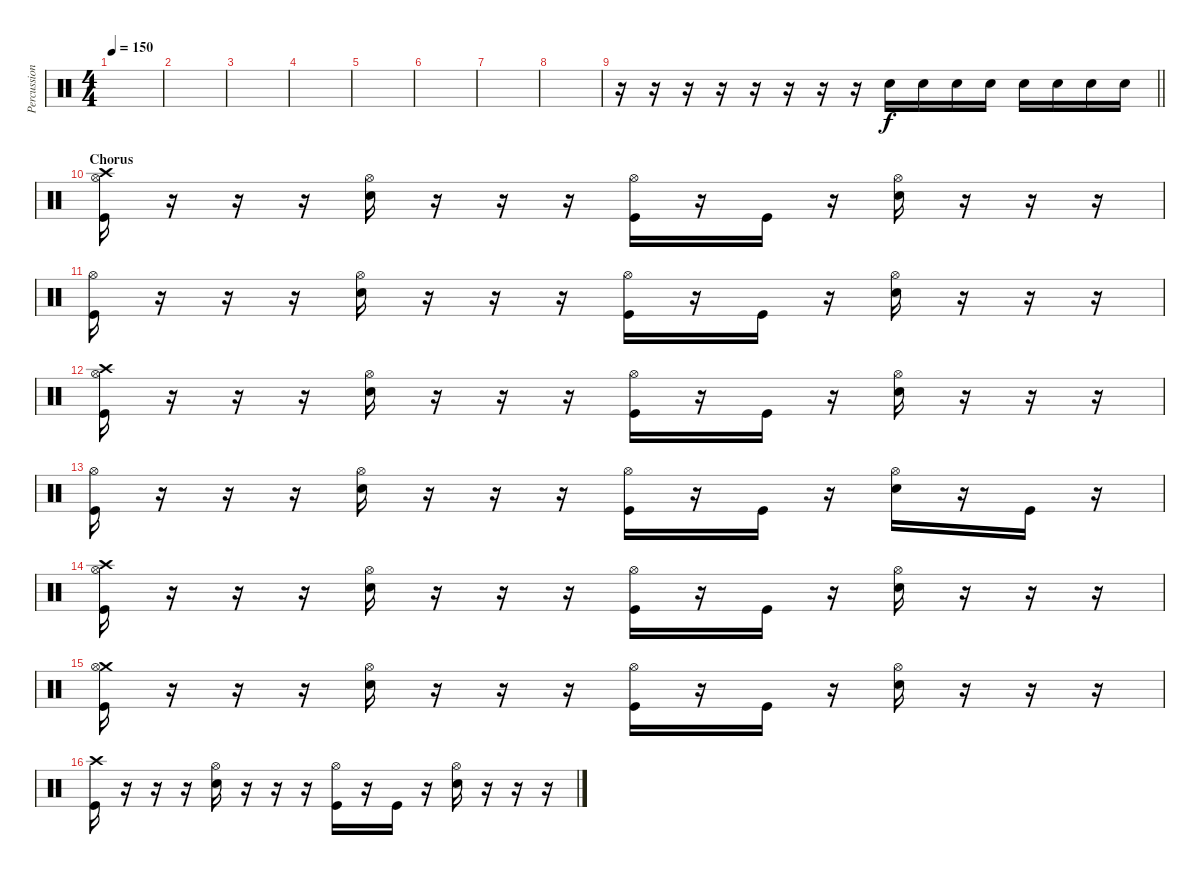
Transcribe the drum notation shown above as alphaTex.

\track ("Percussion" "Percussion") {instrument percussion}
\staff {score}
\articulation defaults
\ts (4 4)
\tempo 150
\clef neutral
\ks c
|
|
|
|
|
|
|
|
\barLineRight lightlight
r.16 r.16 r.16 r.16 r.16 r.16 r.16 r.16 "Electric Snare (hit)".16 "Electric Snare (hit)".16 "Electric Snare (hit)".16 "Electric Snare (hit)".16 "Electric Snare (hit)".16 "Electric Snare (hit)".16 "Electric Snare (hit)".16 "Electric Snare (hit)".16 |
\section ("" "Chorus")
("Crash high (hit)" "Hi-Hat (open)" "Kick (hit)").16 r.16 r.16 r.16 ("Hi-Hat (open)" "Electric Snare (hit)").16 r.16 r.16 r.16 ("Hi-Hat (open)" "Kick (hit)").16 r.16 "Kick (hit)".16 r.16 ("Hi-Hat (open)" "Electric Snare (hit)").16 r.16 r.16 r.16 |
("Hi-Hat (open)" "Kick (hit)").16 r.16 r.16 r.16 ("Hi-Hat (open)" "Electric Snare (hit)").16 r.16 r.16 r.16 ("Hi-Hat (open)" "Kick (hit)").16 r.16 "Kick (hit)".16 r.16 ("Hi-Hat (open)" "Electric Snare (hit)").16 r.16 r.16 r.16 |
("Crash high (hit)" "Hi-Hat (open)" "Kick (hit)").16 r.16 r.16 r.16 ("Hi-Hat (open)" "Electric Snare (hit)").16 r.16 r.16 r.16 ("Hi-Hat (open)" "Kick (hit)").16 r.16 "Kick (hit)".16 r.16 ("Hi-Hat (open)" "Electric Snare (hit)").16 r.16 r.16 r.16 |
("Hi-Hat (open)" "Kick (hit)").16 r.16 r.16 r.16 ("Hi-Hat (open)" "Electric Snare (hit)").16 r.16 r.16 r.16 ("Hi-Hat (open)" "Kick (hit)").16 r.16 "Kick (hit)".16 r.16 ("Hi-Hat (open)" "Electric Snare (hit)").16 r.16 "Kick (hit)".16 r.16 |
("Crash high (hit)" "Hi-Hat (open)" "Kick (hit)").16 r.16 r.16 r.16 ("Hi-Hat (open)" "Electric Snare (hit)").16 r.16 r.16 r.16 ("Hi-Hat (open)" "Kick (hit)").16 r.16 "Kick (hit)".16 r.16 ("Hi-Hat (open)" "Electric Snare (hit)").16 r.16 r.16 r.16 |
("Crash medium (hit)" "Hi-Hat (open)" "Kick (hit)").16 r.16 r.16 r.16 ("Hi-Hat (open)" "Electric Snare (hit)").16 r.16 r.16 r.16 ("Hi-Hat (open)" "Kick (hit)").16 r.16 "Kick (hit)".16 r.16 ("Hi-Hat (open)" "Electric Snare (hit)").16 r.16 r.16 r.16 |
("Crash high (hit)" "Kick (hit)").16 r.16 r.16 r.16 ("Hi-Hat (open)" "Electric Snare (hit)").16 r.16 r.16 r.16 ("Hi-Hat (open)" "Kick (hit)").16 r.16 "Kick (hit)".16 r.16 ("Hi-Hat (open)" "Electric Snare (hit)").16 r.16 r.16 r.16
